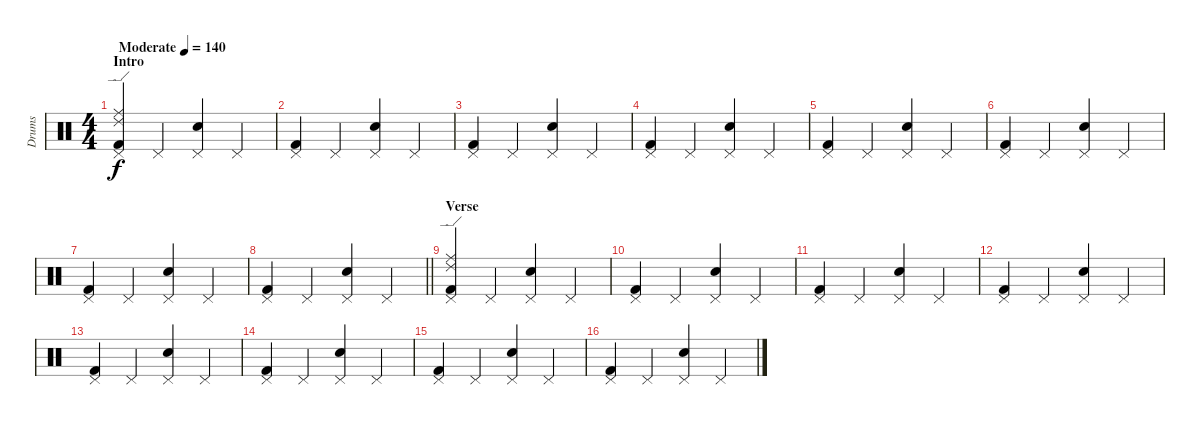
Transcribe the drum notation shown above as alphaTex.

\track ("Drums" "Drums") {instrument percussion}
\staff {score}
\articulation defaults
\ts (4 4)
\section ("" "Intro")
\tempo (140 "Moderate")
\clef neutral
\ks c
("Pedal Hi-Hat (hit)" "Kick (hit) 2" "Ride (middle)" "Ride (edge) 2").4{dy f} "Pedal Hi-Hat (hit)".4 ("Pedal Hi-Hat (hit)" "Snare (hit) 2").4 "Pedal Hi-Hat (hit)".4 |
("Pedal Hi-Hat (hit)" "Kick (hit) 2").4 "Pedal Hi-Hat (hit)".4 ("Pedal Hi-Hat (hit)" "Snare (hit) 2").4 "Pedal Hi-Hat (hit)".4 |
("Pedal Hi-Hat (hit)" "Kick (hit) 2").4 "Pedal Hi-Hat (hit)".4 ("Pedal Hi-Hat (hit)" "Snare (hit) 2").4 "Pedal Hi-Hat (hit)".4 |
("Pedal Hi-Hat (hit)" "Kick (hit) 2").4 "Pedal Hi-Hat (hit)".4 ("Pedal Hi-Hat (hit)" "Snare (hit) 2").4 "Pedal Hi-Hat (hit)".4 |
("Pedal Hi-Hat (hit)" "Kick (hit) 2").4 "Pedal Hi-Hat (hit)".4 ("Pedal Hi-Hat (hit)" "Snare (hit) 2").4 "Pedal Hi-Hat (hit)".4 |
("Pedal Hi-Hat (hit)" "Kick (hit) 2").4 "Pedal Hi-Hat (hit)".4 ("Pedal Hi-Hat (hit)" "Snare (hit) 2").4 "Pedal Hi-Hat (hit)".4 |
("Pedal Hi-Hat (hit)" "Kick (hit) 2").4 "Pedal Hi-Hat (hit)".4 ("Pedal Hi-Hat (hit)" "Snare (hit) 2").4 "Pedal Hi-Hat (hit)".4 |
\barLineRight lightlight
("Pedal Hi-Hat (hit)" "Kick (hit) 2").4 "Pedal Hi-Hat (hit)".4 ("Pedal Hi-Hat (hit)" "Snare (hit) 2").4 "Pedal Hi-Hat (hit)".4 |
\section ("" "Verse")
("Pedal Hi-Hat (hit)" "Kick (hit) 2" "Ride (edge) 2" "Ride (middle)").4 "Pedal Hi-Hat (hit)".4 ("Pedal Hi-Hat (hit)" "Snare (hit) 2").4 "Pedal Hi-Hat (hit)".4 |
("Pedal Hi-Hat (hit)" "Kick (hit) 2").4 "Pedal Hi-Hat (hit)".4 ("Pedal Hi-Hat (hit)" "Snare (hit) 2").4 "Pedal Hi-Hat (hit)".4 |
("Pedal Hi-Hat (hit)" "Kick (hit) 2").4 "Pedal Hi-Hat (hit)".4 ("Pedal Hi-Hat (hit)" "Snare (hit) 2").4 "Pedal Hi-Hat (hit)".4 |
("Pedal Hi-Hat (hit)" "Kick (hit) 2").4 "Pedal Hi-Hat (hit)".4 ("Pedal Hi-Hat (hit)" "Snare (hit) 2").4 "Pedal Hi-Hat (hit)".4 |
("Pedal Hi-Hat (hit)" "Kick (hit) 2").4 "Pedal Hi-Hat (hit)".4 ("Pedal Hi-Hat (hit)" "Snare (hit) 2").4 "Pedal Hi-Hat (hit)".4 |
("Pedal Hi-Hat (hit)" "Kick (hit) 2").4 "Pedal Hi-Hat (hit)".4 ("Pedal Hi-Hat (hit)" "Snare (hit) 2").4 "Pedal Hi-Hat (hit)".4 |
("Pedal Hi-Hat (hit)" "Kick (hit) 2").4 "Pedal Hi-Hat (hit)".4 ("Pedal Hi-Hat (hit)" "Snare (hit) 2").4 "Pedal Hi-Hat (hit)".4 |
("Pedal Hi-Hat (hit)" "Kick (hit) 2").4 "Pedal Hi-Hat (hit)".4 ("Pedal Hi-Hat (hit)" "Snare (hit) 2").4 "Pedal Hi-Hat (hit)".4
